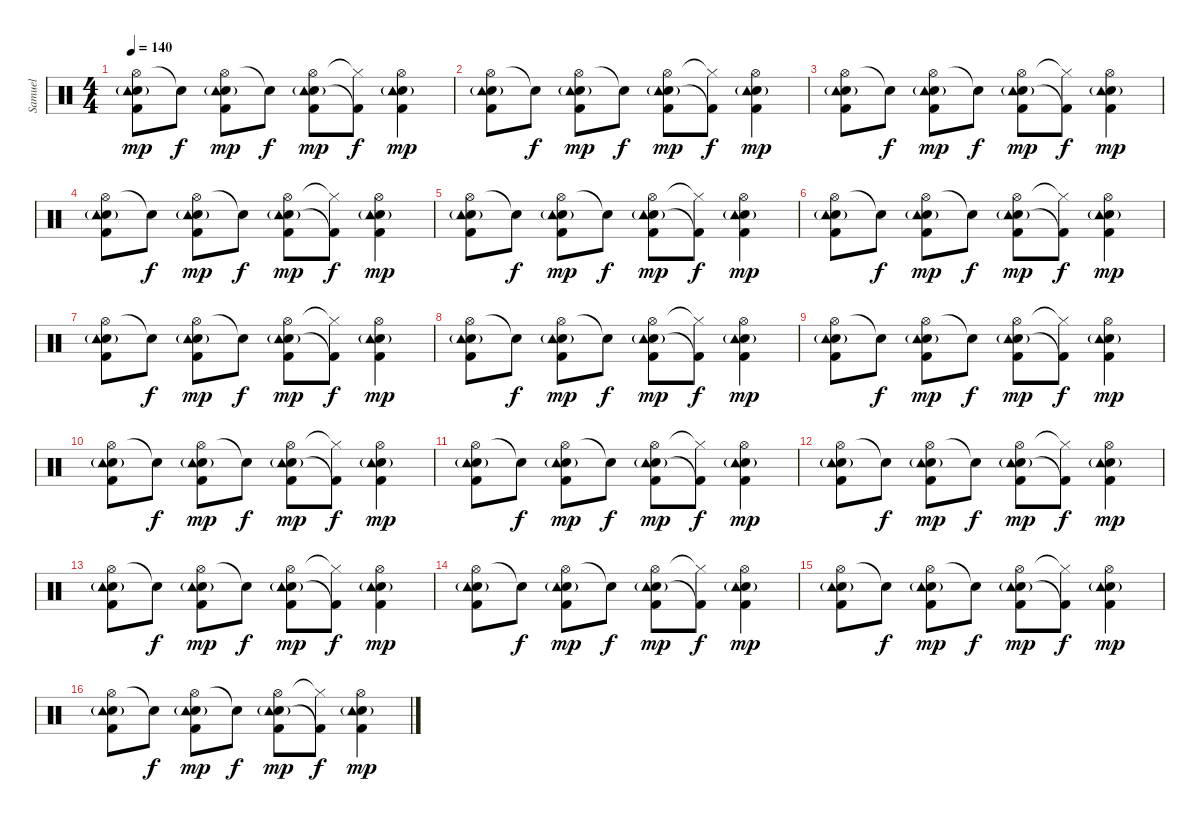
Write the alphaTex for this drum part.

\track ("Samuel" "Samuel") {instrument percussion}
\staff {score}
\articulation defaults
\ts (4 4)
\tempo 140
\clef neutral
\ks c
("Hi-Hat (open)" "Snare (hit) 2"{g} "Kick (hit) 2" "Tambourine (hit)").8{dy mp} "Snare (hit)"{t}.8{dy f} ("Hi-Hat (open)" "Snare (hit) 2"{g} "Kick (hit) 2" "Tambourine (hit)").8{dy mp} "Snare (hit)"{t}.8{dy f} ("Hi-Hat (open)" "Snare (hit) 2"{g} "Kick (hit) 2" "Tambourine (hit)").8{dy mp} ("Hi-Hat (closed)"{t} "Kick (hit) 2"{t}).8{dy f} ("Hi-Hat (open)" "Snare (hit) 2"{g} "Kick (hit) 2" "Tambourine (hit)").4{dy mp} |
("Hi-Hat (open)" "Snare (hit) 2"{g} "Kick (hit) 2" "Tambourine (hit)").8 "Snare (hit)"{t}.8{dy f} ("Hi-Hat (open)" "Snare (hit) 2"{g} "Kick (hit) 2" "Tambourine (hit)").8{dy mp} "Snare (hit)"{t}.8{dy f} ("Hi-Hat (open)" "Snare (hit) 2"{g} "Kick (hit) 2" "Tambourine (hit)").8{dy mp} ("Hi-Hat (closed)"{t} "Kick (hit) 2"{t}).8{dy f} ("Hi-Hat (open)" "Snare (hit) 2"{g} "Kick (hit) 2" "Tambourine (hit)").4{dy mp} |
("Hi-Hat (open)" "Snare (hit) 2"{g} "Kick (hit) 2" "Tambourine (hit)").8 "Snare (hit)"{t}.8{dy f} ("Hi-Hat (open)" "Snare (hit) 2"{g} "Kick (hit) 2" "Tambourine (hit)").8{dy mp} "Snare (hit)"{t}.8{dy f} ("Hi-Hat (open)" "Snare (hit) 2"{g} "Kick (hit) 2" "Tambourine (hit)").8{dy mp} ("Hi-Hat (closed)"{t} "Kick (hit) 2"{t}).8{dy f} ("Hi-Hat (open)" "Snare (hit) 2"{g} "Kick (hit) 2" "Tambourine (hit)").4{dy mp} |
("Hi-Hat (open)" "Snare (hit) 2"{g} "Kick (hit) 2" "Tambourine (hit)").8 "Snare (hit)"{t}.8{dy f} ("Hi-Hat (open)" "Snare (hit) 2"{g} "Kick (hit) 2" "Tambourine (hit)").8{dy mp} "Snare (hit)"{t}.8{dy f} ("Hi-Hat (open)" "Snare (hit) 2"{g} "Kick (hit) 2" "Tambourine (hit)").8{dy mp} ("Hi-Hat (closed)"{t} "Kick (hit) 2"{t}).8{dy f} ("Hi-Hat (open)" "Snare (hit) 2"{g} "Kick (hit) 2" "Tambourine (hit)").4{dy mp} |
("Hi-Hat (open)" "Snare (hit) 2"{g} "Kick (hit) 2" "Tambourine (hit)").8 "Snare (hit)"{t}.8{dy f} ("Hi-Hat (open)" "Snare (hit) 2"{g} "Kick (hit) 2" "Tambourine (hit)").8{dy mp} "Snare (hit)"{t}.8{dy f} ("Hi-Hat (open)" "Snare (hit) 2"{g} "Kick (hit) 2" "Tambourine (hit)").8{dy mp} ("Hi-Hat (closed)"{t} "Kick (hit) 2"{t}).8{dy f} ("Hi-Hat (open)" "Snare (hit) 2"{g} "Kick (hit) 2" "Tambourine (hit)").4{dy mp} |
("Hi-Hat (open)" "Snare (hit) 2"{g} "Kick (hit) 2" "Tambourine (hit)").8 "Snare (hit)"{t}.8{dy f} ("Hi-Hat (open)" "Snare (hit) 2"{g} "Kick (hit) 2" "Tambourine (hit)").8{dy mp} "Snare (hit)"{t}.8{dy f} ("Hi-Hat (open)" "Snare (hit) 2"{g} "Kick (hit) 2" "Tambourine (hit)").8{dy mp} ("Hi-Hat (closed)"{t} "Kick (hit) 2"{t}).8{dy f} ("Hi-Hat (open)" "Snare (hit) 2"{g} "Kick (hit) 2" "Tambourine (hit)").4{dy mp} |
("Hi-Hat (open)" "Snare (hit) 2"{g} "Kick (hit) 2" "Tambourine (hit)").8 "Snare (hit)"{t}.8{dy f} ("Hi-Hat (open)" "Snare (hit) 2"{g} "Kick (hit) 2" "Tambourine (hit)").8{dy mp} "Snare (hit)"{t}.8{dy f} ("Hi-Hat (open)" "Snare (hit) 2"{g} "Kick (hit) 2" "Tambourine (hit)").8{dy mp} ("Hi-Hat (closed)"{t} "Kick (hit) 2"{t}).8{dy f} ("Hi-Hat (open)" "Snare (hit) 2"{g} "Kick (hit) 2" "Tambourine (hit)").4{dy mp} |
("Hi-Hat (open)" "Snare (hit) 2"{g} "Kick (hit) 2" "Tambourine (hit)").8 "Snare (hit)"{t}.8{dy f} ("Hi-Hat (open)" "Snare (hit) 2"{g} "Kick (hit) 2" "Tambourine (hit)").8{dy mp} "Snare (hit)"{t}.8{dy f} ("Hi-Hat (open)" "Snare (hit) 2"{g} "Kick (hit) 2" "Tambourine (hit)").8{dy mp} ("Hi-Hat (closed)"{t} "Kick (hit) 2"{t}).8{dy f} ("Hi-Hat (open)" "Snare (hit) 2"{g} "Kick (hit) 2" "Tambourine (hit)").4{dy mp} |
("Hi-Hat (open)" "Snare (hit) 2"{g} "Kick (hit) 2" "Tambourine (hit)").8 "Snare (hit)"{t}.8{dy f} ("Hi-Hat (open)" "Snare (hit) 2"{g} "Kick (hit) 2" "Tambourine (hit)").8{dy mp} "Snare (hit)"{t}.8{dy f} ("Hi-Hat (open)" "Snare (hit) 2"{g} "Kick (hit) 2" "Tambourine (hit)").8{dy mp} ("Hi-Hat (closed)"{t} "Kick (hit) 2"{t}).8{dy f} ("Hi-Hat (open)" "Snare (hit) 2"{g} "Kick (hit) 2" "Tambourine (hit)").4{dy mp} |
("Hi-Hat (open)" "Snare (hit) 2"{g} "Kick (hit) 2" "Tambourine (hit)").8 "Snare (hit)"{t}.8{dy f} ("Hi-Hat (open)" "Snare (hit) 2"{g} "Kick (hit) 2" "Tambourine (hit)").8{dy mp} "Snare (hit)"{t}.8{dy f} ("Hi-Hat (open)" "Snare (hit) 2"{g} "Kick (hit) 2" "Tambourine (hit)").8{dy mp} ("Hi-Hat (closed)"{t} "Kick (hit) 2"{t}).8{dy f} ("Hi-Hat (open)" "Snare (hit) 2"{g} "Kick (hit) 2" "Tambourine (hit)").4{dy mp} |
("Hi-Hat (open)" "Snare (hit) 2"{g} "Kick (hit) 2" "Tambourine (hit)").8 "Snare (hit)"{t}.8{dy f} ("Hi-Hat (open)" "Snare (hit) 2"{g} "Kick (hit) 2" "Tambourine (hit)").8{dy mp} "Snare (hit)"{t}.8{dy f} ("Hi-Hat (open)" "Snare (hit) 2"{g} "Kick (hit) 2" "Tambourine (hit)").8{dy mp} ("Hi-Hat (closed)"{t} "Kick (hit) 2"{t}).8{dy f} ("Hi-Hat (open)" "Snare (hit) 2"{g} "Kick (hit) 2" "Tambourine (hit)").4{dy mp} |
("Hi-Hat (open)" "Snare (hit) 2"{g} "Kick (hit) 2" "Tambourine (hit)").8 "Snare (hit)"{t}.8{dy f} ("Hi-Hat (open)" "Snare (hit) 2"{g} "Kick (hit) 2" "Tambourine (hit)").8{dy mp} "Snare (hit)"{t}.8{dy f} ("Hi-Hat (open)" "Snare (hit) 2"{g} "Kick (hit) 2" "Tambourine (hit)").8{dy mp} ("Hi-Hat (closed)"{t} "Kick (hit) 2"{t}).8{dy f} ("Hi-Hat (open)" "Snare (hit) 2"{g} "Kick (hit) 2" "Tambourine (hit)").4{dy mp} |
("Hi-Hat (open)" "Snare (hit) 2"{g} "Kick (hit) 2" "Tambourine (hit)").8 "Snare (hit)"{t}.8{dy f} ("Hi-Hat (open)" "Snare (hit) 2"{g} "Kick (hit) 2" "Tambourine (hit)").8{dy mp} "Snare (hit)"{t}.8{dy f} ("Hi-Hat (open)" "Snare (hit) 2"{g} "Kick (hit) 2" "Tambourine (hit)").8{dy mp} ("Hi-Hat (closed)"{t} "Kick (hit) 2"{t}).8{dy f} ("Hi-Hat (open)" "Snare (hit) 2"{g} "Kick (hit) 2" "Tambourine (hit)").4{dy mp} |
("Hi-Hat (open)" "Snare (hit) 2"{g} "Kick (hit) 2" "Tambourine (hit)").8 "Snare (hit)"{t}.8{dy f} ("Hi-Hat (open)" "Snare (hit) 2"{g} "Kick (hit) 2" "Tambourine (hit)").8{dy mp} "Snare (hit)"{t}.8{dy f} ("Hi-Hat (open)" "Snare (hit) 2"{g} "Kick (hit) 2" "Tambourine (hit)").8{dy mp} ("Hi-Hat (closed)"{t} "Kick (hit) 2"{t}).8{dy f} ("Hi-Hat (open)" "Snare (hit) 2"{g} "Kick (hit) 2" "Tambourine (hit)").4{dy mp} |
("Hi-Hat (open)" "Snare (hit) 2"{g} "Kick (hit) 2" "Tambourine (hit)").8 "Snare (hit)"{t}.8{dy f} ("Hi-Hat (open)" "Snare (hit) 2"{g} "Kick (hit) 2" "Tambourine (hit)").8{dy mp} "Snare (hit)"{t}.8{dy f} ("Hi-Hat (open)" "Snare (hit) 2"{g} "Kick (hit) 2" "Tambourine (hit)").8{dy mp} ("Hi-Hat (closed)"{t} "Kick (hit) 2"{t}).8{dy f} ("Hi-Hat (open)" "Snare (hit) 2"{g} "Kick (hit) 2" "Tambourine (hit)").4{dy mp} |
("Hi-Hat (open)" "Snare (hit) 2"{g} "Kick (hit) 2" "Tambourine (hit)").8 "Snare (hit)"{t}.8{dy f} ("Hi-Hat (open)" "Snare (hit) 2"{g} "Kick (hit) 2" "Tambourine (hit)").8{dy mp} "Snare (hit)"{t}.8{dy f} ("Hi-Hat (open)" "Snare (hit) 2"{g} "Kick (hit) 2" "Tambourine (hit)").8{dy mp} ("Hi-Hat (closed)"{t} "Kick (hit) 2"{t}).8{dy f} ("Hi-Hat (open)" "Snare (hit) 2"{g} "Kick (hit) 2" "Tambourine (hit)").4{dy mp}
